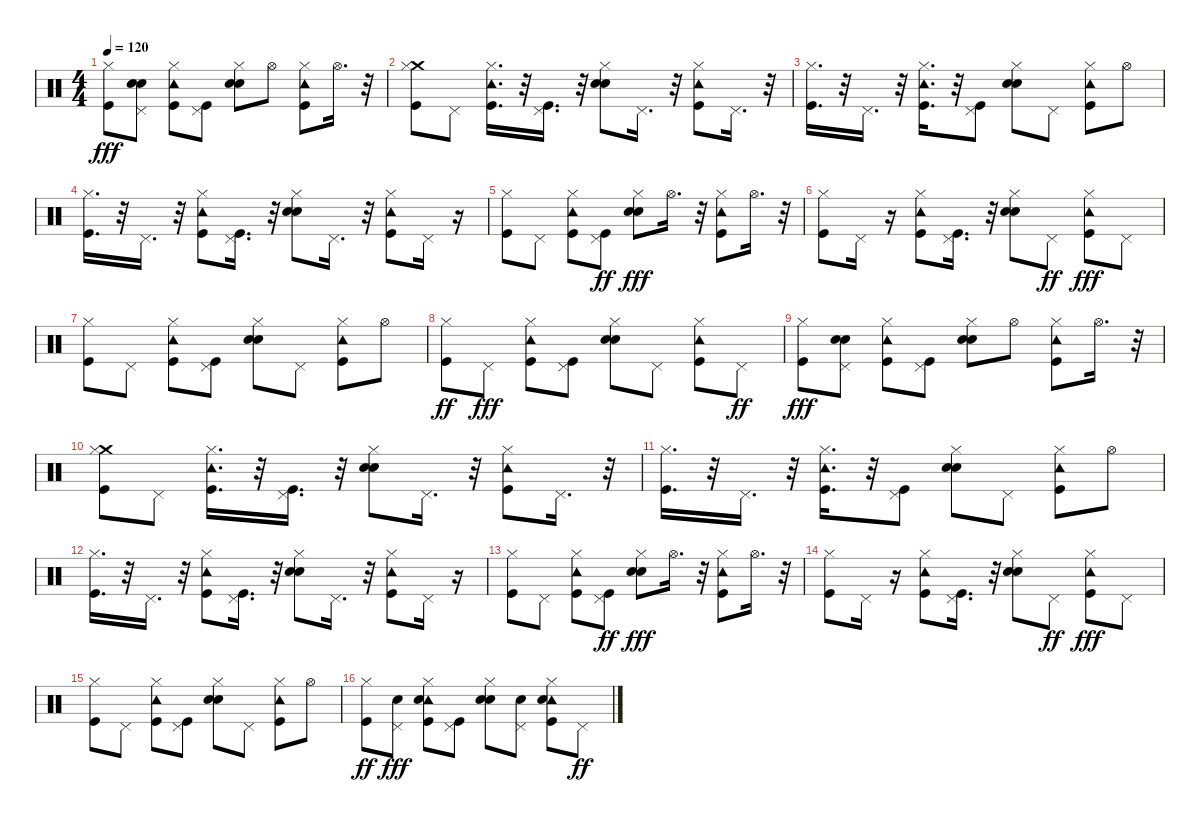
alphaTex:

\track "" {instrument percussion}
\staff {score}
\articulation defaults
\ts (4 4)
\tempo 120
\clef neutral
\ks c
("Hi-Hat (closed)" "Kick (hit)").8{dy fff} ("Pedal Hi-Hat (hit)" "Hand Clap (hit)" "Snare (hit) 2").8 ("Tambourine (hit)" "Hi-Hat (closed)" "Kick (hit)").8 ("Pedal Hi-Hat (hit)" "Kick (hit)").8 ("Hi-Hat (closed)" "Hand Clap (hit)" "Snare (hit) 2").8 "Hi-Hat (open)".8 ("Tambourine (hit)" "Hi-Hat (closed)" "Kick (hit)").8 "Hi-Hat (open)".16{d} r.32 |
("Crash medium (hit)" "Kick (hit)" "Hi-Hat (closed)").8 "Pedal Hi-Hat (hit)".8 ("Hi-Hat (closed)" "Kick (hit)" "Tambourine (hit)").16{d} r.32 ("Pedal Hi-Hat (hit)" "Kick (hit)").16{d} r.32 ("Hand Clap (hit)" "Hi-Hat (closed)" "Snare (hit) 2").8 "Pedal Hi-Hat (hit)".16{d} r.32 ("Hi-Hat (closed)" "Kick (hit)" "Tambourine (hit)").8 "Pedal Hi-Hat (hit)".16{d} r.32 |
("Hi-Hat (closed)" "Kick (hit)").16{d} r.32 "Pedal Hi-Hat (hit)".16{d} r.32 ("Hi-Hat (closed)" "Kick (hit)" "Tambourine (hit)").16{d} r.32 ("Pedal Hi-Hat (hit)" "Kick (hit)").8 ("Hi-Hat (closed)" "Hand Clap (hit)" "Snare (hit) 2").8 "Pedal Hi-Hat (hit)".8 ("Hi-Hat (closed)" "Kick (hit)" "Tambourine (hit)").8 "Hi-Hat (open)".8 |
("Hi-Hat (closed)" "Kick (hit)").16{d} r.32 "Pedal Hi-Hat (hit)".16{d} r.32 ("Tambourine (hit)" "Kick (hit)" "Hi-Hat (closed)").8 ("Pedal Hi-Hat (hit)" "Kick (hit)").16{d} r.32 ("Hi-Hat (closed)" "Hand Clap (hit)" "Snare (hit) 2").8 "Pedal Hi-Hat (hit)".16{d} r.32 ("Tambourine (hit)" "Hi-Hat (closed)" "Kick (hit)").8 "Pedal Hi-Hat (hit)".16 r.16 |
("Kick (hit)" "Hi-Hat (closed)").8 "Pedal Hi-Hat (hit)".8 ("Tambourine (hit)" "Hi-Hat (closed)" "Kick (hit)").8 ("Kick (hit)" "Pedal Hi-Hat (hit)").8{dy ff} ("Hi-Hat (closed)" "Hand Clap (hit)" "Snare (hit) 2").8{dy fff} "Hi-Hat (open)".16{d} r.32 ("Hi-Hat (closed)" "Kick (hit)" "Tambourine (hit)").8 "Hi-Hat (open)".16{d} r.32 |
("Kick (hit)" "Hi-Hat (closed)").8 "Pedal Hi-Hat (hit)".16 r.16 ("Kick (hit)" "Hi-Hat (closed)" "Tambourine (hit)").8 ("Kick (hit)" "Pedal Hi-Hat (hit)").16{d} r.32 ("Hand Clap (hit)" "Hi-Hat (closed)" "Snare (hit) 2").8 "Pedal Hi-Hat (hit)".8{dy ff} ("Hi-Hat (closed)" "Kick (hit)" "Tambourine (hit)").8{dy fff} "Pedal Hi-Hat (hit)".8 |
("Kick (hit)" "Hi-Hat (closed)").8 "Pedal Hi-Hat (hit)".8 ("Tambourine (hit)" "Hi-Hat (closed)" "Kick (hit)").8 ("Kick (hit)" "Pedal Hi-Hat (hit)").8 ("Hi-Hat (closed)" "Hand Clap (hit)" "Snare (hit) 2").8 "Pedal Hi-Hat (hit)".8 ("Tambourine (hit)" "Hi-Hat (closed)" "Kick (hit)").8 "Hi-Hat (open)".8 |
("Kick (hit)" "Hi-Hat (closed)").8{dy ff} "Pedal Hi-Hat (hit)".8{dy fff} ("Kick (hit)" "Hi-Hat (closed)" "Tambourine (hit)").8 ("Kick (hit)" "Pedal Hi-Hat (hit)").8 ("Hand Clap (hit)" "Hi-Hat (closed)" "Snare (hit) 2").8 "Pedal Hi-Hat (hit)".8 ("Tambourine (hit)" "Kick (hit)" "Hi-Hat (closed)").8 "Pedal Hi-Hat (hit)".8{dy ff} |
("Hi-Hat (closed)" "Kick (hit)").8{dy fff} ("Pedal Hi-Hat (hit)" "Hand Clap (hit)" "Snare (hit) 2").8 ("Tambourine (hit)" "Hi-Hat (closed)" "Kick (hit)").8 ("Pedal Hi-Hat (hit)" "Kick (hit)").8 ("Hi-Hat (closed)" "Hand Clap (hit)" "Snare (hit) 2").8 "Hi-Hat (open)".8 ("Tambourine (hit)" "Hi-Hat (closed)" "Kick (hit)").8 "Hi-Hat (open)".16{d} r.32 |
("Crash medium (hit)" "Kick (hit)" "Hi-Hat (closed)").8 "Pedal Hi-Hat (hit)".8 ("Hi-Hat (closed)" "Kick (hit)" "Tambourine (hit)").16{d} r.32 ("Pedal Hi-Hat (hit)" "Kick (hit)").16{d} r.32 ("Hand Clap (hit)" "Hi-Hat (closed)" "Snare (hit) 2").8 "Pedal Hi-Hat (hit)".16{d} r.32 ("Hi-Hat (closed)" "Kick (hit)" "Tambourine (hit)").8 "Pedal Hi-Hat (hit)".16{d} r.32 |
("Hi-Hat (closed)" "Kick (hit)").16{d} r.32 "Pedal Hi-Hat (hit)".16{d} r.32 ("Hi-Hat (closed)" "Kick (hit)" "Tambourine (hit)").16{d} r.32 ("Pedal Hi-Hat (hit)" "Kick (hit)").8 ("Hi-Hat (closed)" "Hand Clap (hit)" "Snare (hit) 2").8 "Pedal Hi-Hat (hit)".8 ("Hi-Hat (closed)" "Kick (hit)" "Tambourine (hit)").8 "Hi-Hat (open)".8 |
("Hi-Hat (closed)" "Kick (hit)").16{d} r.32 "Pedal Hi-Hat (hit)".16{d} r.32 ("Tambourine (hit)" "Kick (hit)" "Hi-Hat (closed)").8 ("Pedal Hi-Hat (hit)" "Kick (hit)").16{d} r.32 ("Hi-Hat (closed)" "Hand Clap (hit)" "Snare (hit) 2").8 "Pedal Hi-Hat (hit)".16{d} r.32 ("Tambourine (hit)" "Hi-Hat (closed)" "Kick (hit)").8 "Pedal Hi-Hat (hit)".16 r.16 |
("Kick (hit)" "Hi-Hat (closed)").8 "Pedal Hi-Hat (hit)".8 ("Tambourine (hit)" "Hi-Hat (closed)" "Kick (hit)").8 ("Kick (hit)" "Pedal Hi-Hat (hit)").8{dy ff} ("Hi-Hat (closed)" "Hand Clap (hit)" "Snare (hit) 2").8{dy fff} "Hi-Hat (open)".16{d} r.32 ("Hi-Hat (closed)" "Kick (hit)" "Tambourine (hit)").8 "Hi-Hat (open)".16{d} r.32 |
("Kick (hit)" "Hi-Hat (closed)").8 "Pedal Hi-Hat (hit)".16 r.16 ("Kick (hit)" "Hi-Hat (closed)" "Tambourine (hit)").8 ("Kick (hit)" "Pedal Hi-Hat (hit)").16{d} r.32 ("Hand Clap (hit)" "Hi-Hat (closed)" "Snare (hit) 2").8 "Pedal Hi-Hat (hit)".8{dy ff} ("Hi-Hat (closed)" "Kick (hit)" "Tambourine (hit)").8{dy fff} "Pedal Hi-Hat (hit)".8 |
("Kick (hit)" "Hi-Hat (closed)").8 "Pedal Hi-Hat (hit)".8 ("Tambourine (hit)" "Hi-Hat (closed)" "Kick (hit)").8 ("Kick (hit)" "Pedal Hi-Hat (hit)").8 ("Hi-Hat (closed)" "Hand Clap (hit)" "Snare (hit) 2").8 "Pedal Hi-Hat (hit)".8 ("Tambourine (hit)" "Hi-Hat (closed)" "Kick (hit)").8 "Hi-Hat (open)".8 |
("Kick (hit)" "Hi-Hat (closed)").8{dy ff} ("Pedal Hi-Hat (hit)" "Snare (hit) 2").8{dy fff} ("Kick (hit)" "Hi-Hat (closed)" "Tambourine (hit)" "Snare (hit) 2").8 ("Kick (hit)" "Pedal Hi-Hat (hit)").8 ("Hand Clap (hit)" "Hi-Hat (closed)" "Snare (hit) 2").8 ("Pedal Hi-Hat (hit)" "Snare (hit) 2").8 ("Tambourine (hit)" "Kick (hit)" "Hi-Hat (closed)" "Snare (hit) 2").8 "Pedal Hi-Hat (hit)".8{dy ff}
